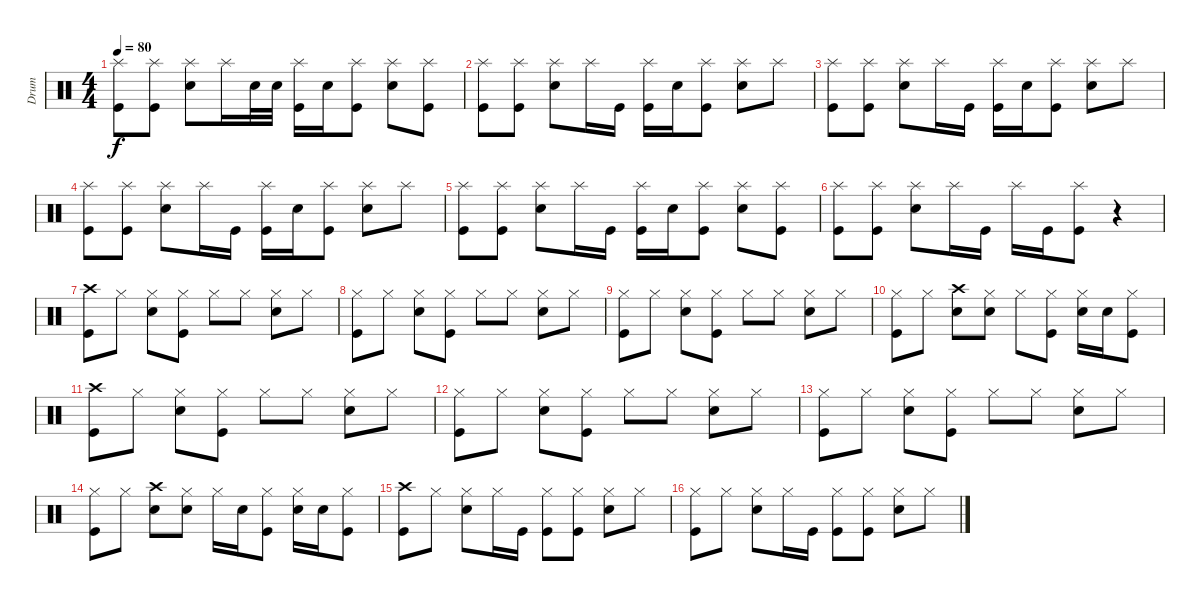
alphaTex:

\track ("Drum" "Drum") {instrument percussion}
\staff {score}
\articulation defaults
\ts (4 4)
\tempo 80
\clef neutral
\ks c
("Splash (hit)" "Kick (hit)").8{dy f} ("Splash (hit)" "Kick (hit)").8 ("Splash (hit)" "Electric Snare (hit)").8 "Splash (hit)".16 "Electric Snare (hit)".32 "Electric Snare (hit)".32 ("Splash (hit)" "Kick (hit)").16 "Electric Snare (hit)".16 ("Splash (hit)" "Kick (hit)").8 ("Splash (hit)" "Electric Snare (hit)").8 ("Splash (hit)" "Kick (hit)").8 |
("Splash (hit)" "Kick (hit)").8 ("Splash (hit)" "Kick (hit)").8 ("Splash (hit)" "Electric Snare (hit)").8 "Splash (hit)".16 "Kick (hit)".16 ("Splash (hit)" "Kick (hit)").16 "Electric Snare (hit)".16 ("Splash (hit)" "Kick (hit)").8 ("Splash (hit)" "Electric Snare (hit)").8 "Splash (hit)".8 |
("Splash (hit)" "Kick (hit)").8 ("Splash (hit)" "Kick (hit)").8 ("Splash (hit)" "Electric Snare (hit)").8 "Splash (hit)".16 "Kick (hit)".16 ("Splash (hit)" "Kick (hit)").16 "Electric Snare (hit)".16 ("Splash (hit)" "Kick (hit)").8 ("Splash (hit)" "Electric Snare (hit)").8 "Splash (hit)".8 |
("Splash (hit)" "Kick (hit)").8 ("Splash (hit)" "Kick (hit)").8 ("Splash (hit)" "Electric Snare (hit)").8 "Splash (hit)".16 "Kick (hit)".16 ("Splash (hit)" "Kick (hit)").16 "Electric Snare (hit)".16 ("Splash (hit)" "Kick (hit)").8 ("Splash (hit)" "Electric Snare (hit)").8 "Splash (hit)".8 |
("Splash (hit)" "Kick (hit)").8 ("Splash (hit)" "Kick (hit)").8 ("Splash (hit)" "Electric Snare (hit)").8 "Splash (hit)".16 "Kick (hit)".16 ("Splash (hit)" "Kick (hit)").16 "Electric Snare (hit)".16 ("Splash (hit)" "Kick (hit)").8 ("Splash (hit)" "Electric Snare (hit)").8 ("Splash (hit)" "Kick (hit)").8 |
("Splash (hit)" "Kick (hit)").8 ("Splash (hit)" "Kick (hit)").8 ("Splash (hit)" "Electric Snare (hit)").8 "Splash (hit)".16 "Kick (hit)".16 "Splash (hit)".16 "Kick (hit)".16 ("Splash (hit)" "Kick (hit)").8 r.4 |
("Crash high (hit)" "Kick (hit)").8 "Hi-Hat (closed)".8 ("Hi-Hat (closed)" "Snare (hit) 2").8 ("Hi-Hat (closed)" "Kick (hit)").8 "Hi-Hat (closed)".8 "Hi-Hat (closed)".8 ("Hi-Hat (closed)" "Snare (hit) 2").8 "Hi-Hat (closed)".8 |
("Hi-Hat (closed)" "Kick (hit)").8 "Hi-Hat (closed)".8 ("Hi-Hat (closed)" "Snare (hit) 2").8 ("Hi-Hat (closed)" "Kick (hit)").8 "Hi-Hat (closed)".8 "Hi-Hat (closed)".8 ("Hi-Hat (closed)" "Snare (hit) 2").8 "Hi-Hat (closed)".8 |
("Hi-Hat (closed)" "Kick (hit)").8 "Hi-Hat (closed)".8 ("Hi-Hat (closed)" "Snare (hit) 2").8 ("Hi-Hat (closed)" "Kick (hit)").8 "Hi-Hat (closed)".8 "Hi-Hat (closed)".8 ("Hi-Hat (closed)" "Snare (hit) 2").8 "Hi-Hat (closed)".8 |
("Hi-Hat (closed)" "Kick (hit)").8 "Hi-Hat (closed)".8 ("Crash high (hit)" "Snare (hit) 2").8 ("Hi-Hat (closed)" "Electric Snare (hit)").8 "Hi-Hat (closed)".8 ("Hi-Hat (closed)" "Kick (hit)").8 ("Hi-Hat (closed)" "Electric Snare (hit)").16 "Electric Snare (hit)".16 ("Hi-Hat (closed)" "Kick (hit)").8 |
("Crash high (hit)" "Kick (hit)").8 "Hi-Hat (closed)".8 ("Hi-Hat (closed)" "Snare (hit) 2").8 ("Hi-Hat (closed)" "Kick (hit)").8 "Hi-Hat (closed)".8 "Hi-Hat (closed)".8 ("Hi-Hat (closed)" "Snare (hit) 2").8 "Hi-Hat (closed)".8 |
("Hi-Hat (closed)" "Kick (hit)").8 "Hi-Hat (closed)".8 ("Hi-Hat (closed)" "Snare (hit) 2").8 ("Hi-Hat (closed)" "Kick (hit)").8 "Hi-Hat (closed)".8 "Hi-Hat (closed)".8 ("Hi-Hat (closed)" "Snare (hit) 2").8 "Hi-Hat (closed)".8 |
("Hi-Hat (closed)" "Kick (hit)").8 "Hi-Hat (closed)".8 ("Hi-Hat (closed)" "Snare (hit) 2").8 ("Hi-Hat (closed)" "Kick (hit)").8 "Hi-Hat (closed)".8 "Hi-Hat (closed)".8 ("Hi-Hat (closed)" "Snare (hit) 2").8 "Hi-Hat (closed)".8 |
("Hi-Hat (closed)" "Kick (hit)").8 "Hi-Hat (closed)".8 ("Crash high (hit)" "Snare (hit) 2").8 ("Hi-Hat (closed)" "Electric Snare (hit)").8 "Hi-Hat (closed)".16 "Electric Snare (hit)".16 ("Hi-Hat (closed)" "Kick (hit)").8 ("Hi-Hat (closed)" "Electric Snare (hit)").16 "Electric Snare (hit)".16 ("Hi-Hat (closed)" "Kick (hit)").8 |
("Crash high (hit)" "Kick (hit)").8 "Hi-Hat (closed)".8 ("Hi-Hat (closed)" "Electric Snare (hit)").8 "Hi-Hat (closed)".16 "Kick (hit)".16 ("Hi-Hat (closed)" "Kick (hit)").8 ("Hi-Hat (closed)" "Kick (hit)").8 ("Hi-Hat (closed)" "Electric Snare (hit)").8 "Hi-Hat (closed)".8 |
("Hi-Hat (closed)" "Kick (hit)").8 "Hi-Hat (closed)".8 ("Hi-Hat (closed)" "Electric Snare (hit)").8 "Hi-Hat (closed)".16 "Kick (hit)".16 ("Hi-Hat (closed)" "Kick (hit)").8 ("Hi-Hat (closed)" "Kick (hit)").8 ("Hi-Hat (closed)" "Electric Snare (hit)").8 "Hi-Hat (closed)".8
